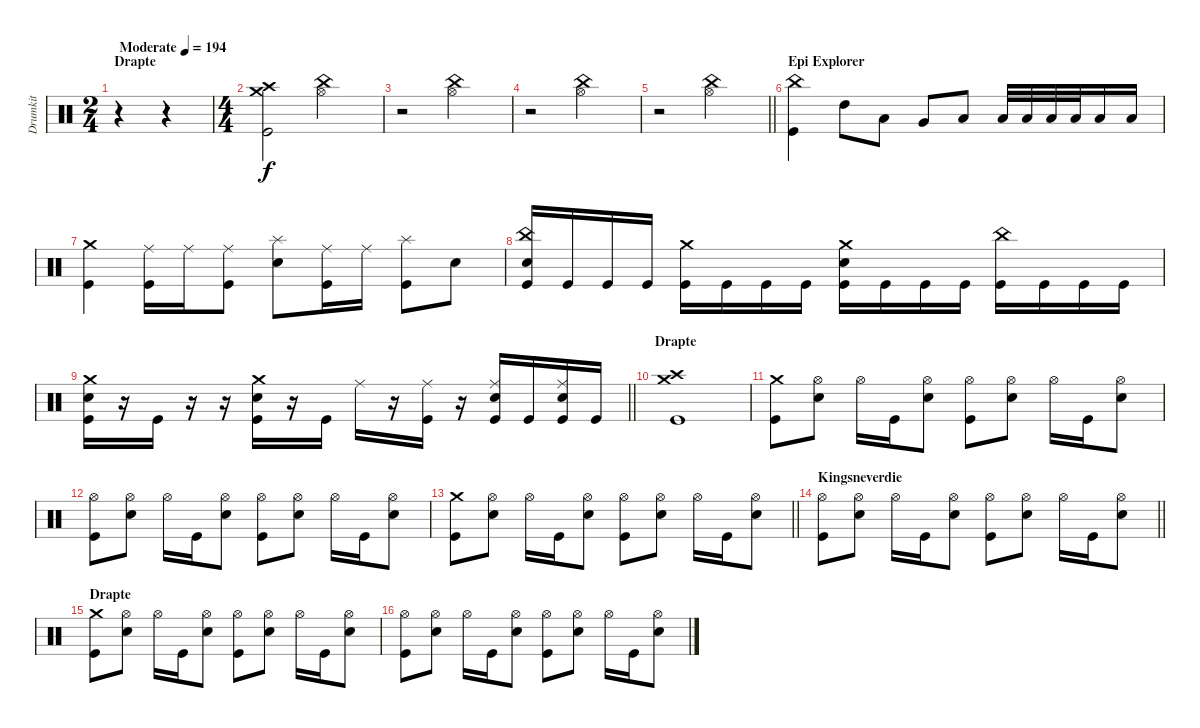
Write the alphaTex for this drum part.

\track ("Drumkit" "Drumkit") {instrument percussion}
\staff {score}
\articulation defaults
\ts (2 4)
\section ("" "Drapte")
\tempo (194 "Moderate")
\clef neutral
\ks c
r.4{dy f} r.4 |
\ts (4 4)
("Crash medium (hit)" "Crash high (hit)" "Kick (hit)").2 ("China (hit)" "Hi-Hat (open)").2 |
r.2 ("China (hit)" "Hi-Hat (open)").2 |
r.2 ("China (hit)" "Hi-Hat (open)").2 |
\barLineRight lightlight
r.2 ("China (hit)" "Hi-Hat (open)").2 |
\section ("" "Epi Explorer")
("China (hit)" "Kick (hit)").4 "High Tom (hit)".8 "Low Tom (hit)".8 "Very Low Tom (hit)".8 "Low Floor Tom (hit)".8 "Low Tom (hit)".32 "Low Tom (hit)".32 "Low Tom (hit)".32 "Low Tom (hit)".32 "Low Tom (hit)".16 "Low Tom (hit)".16 |
("Crash medium (hit)" "Kick (hit)").4 ("Ride (middle)" "Kick (hit)").16 "Ride (middle)".16 ("Ride (middle)" "Kick (hit)").8 ("Splash (hit)" "Snare (hit) 2").8 ("Ride (middle)" "Kick (hit)").16 "Ride (middle)".16 ("Splash (hit)" "Kick (hit)").8 "Snare (hit) 2".8 |
("China (hit)" "Snare (hit) 2" "Kick (hit)").16 "Kick (hit)".16 "Kick (hit)".16 "Kick (hit)".16 ("Crash medium (hit)" "Kick (hit)").16 "Kick (hit)".16 "Kick (hit)".16 "Kick (hit)".16 ("Crash medium (hit)" "Snare (hit) 2" "Kick (hit)").16 "Kick (hit)".16 "Kick (hit)".16 "Kick (hit)".16 ("China (hit)" "Kick (hit)").16 "Kick (hit)".16 "Kick (hit)".16 "Kick (hit)".16 |
\barLineRight lightlight
("Crash medium (hit)" "Snare (hit) 2" "Kick (hit)").16 r.16 "Kick (hit)".16 r.16 r.16 ("Crash medium (hit)" "Snare (hit) 2" "Kick (hit)").16 r.16 "Kick (hit)".16 "Ride (middle)".16 r.16 ("Ride (middle)" "Kick (hit)").16 r.16 ("Ride (middle)" "Snare (hit) 2" "Kick (hit)").16 "Kick (hit)".16 ("Ride (middle)" "Snare (hit) 2" "Kick (hit)").16 "Kick (hit)".16 |
\section ("" "Drapte")
("Crash medium (hit)" "Crash high (hit)" "Kick (hit)").1 |
("Crash medium (hit)" "Kick (hit)").8 ("Hi-Hat (open)" "Snare (hit) 2").8 "Hi-Hat (open)".16 "Kick (hit)".16 ("Hi-Hat (open)" "Snare (hit) 2").8 ("Hi-Hat (open)" "Kick (hit)").8 ("Hi-Hat (open)" "Snare (hit) 2").8 "Hi-Hat (open)".16 "Kick (hit)".16 ("Hi-Hat (open)" "Snare (hit) 2").8 |
("Hi-Hat (open)" "Kick (hit)").8 ("Hi-Hat (open)" "Snare (hit) 2").8 "Hi-Hat (open)".16 "Kick (hit)".16 ("Hi-Hat (open)" "Snare (hit) 2").8 ("Hi-Hat (open)" "Kick (hit)").8 ("Hi-Hat (open)" "Snare (hit) 2").8 "Hi-Hat (open)".16 "Kick (hit)".16 ("Hi-Hat (open)" "Snare (hit) 2").8 |
\barLineRight lightlight
("Crash medium (hit)" "Kick (hit)").8 ("Hi-Hat (open)" "Snare (hit) 2").8 "Hi-Hat (open)".16 "Kick (hit)".16 ("Hi-Hat (open)" "Snare (hit) 2").8 ("Hi-Hat (open)" "Kick (hit)").8 ("Hi-Hat (open)" "Snare (hit) 2").8 "Hi-Hat (open)".16 "Kick (hit)".16 ("Hi-Hat (open)" "Snare (hit) 2").8 |
\section ("" "Kingsneverdie")
\barLineRight lightlight
("Hi-Hat (open)" "Kick (hit)").8 ("Hi-Hat (open)" "Snare (hit) 2").8 "Hi-Hat (open)".16 "Kick (hit)".16 ("Hi-Hat (open)" "Snare (hit) 2").8 ("Hi-Hat (open)" "Kick (hit)").8 ("Hi-Hat (open)" "Snare (hit) 2").8 "Hi-Hat (open)".16 "Kick (hit)".16 ("Hi-Hat (open)" "Snare (hit) 2").8 |
\section ("" "Drapte")
("Crash medium (hit)" "Kick (hit)").8 ("Hi-Hat (open)" "Snare (hit) 2").8 "Hi-Hat (open)".16 "Kick (hit)".16 ("Hi-Hat (open)" "Snare (hit) 2").8 ("Hi-Hat (open)" "Kick (hit)").8 ("Hi-Hat (open)" "Snare (hit) 2").8 "Hi-Hat (open)".16 "Kick (hit)".16 ("Hi-Hat (open)" "Snare (hit) 2").8 |
("Hi-Hat (open)" "Kick (hit)").8 ("Hi-Hat (open)" "Snare (hit) 2").8 "Hi-Hat (open)".16 "Kick (hit)".16 ("Hi-Hat (open)" "Snare (hit) 2").8 ("Hi-Hat (open)" "Kick (hit)").8 ("Hi-Hat (open)" "Snare (hit) 2").8 "Hi-Hat (open)".16 "Kick (hit)".16 ("Hi-Hat (open)" "Snare (hit) 2").8
